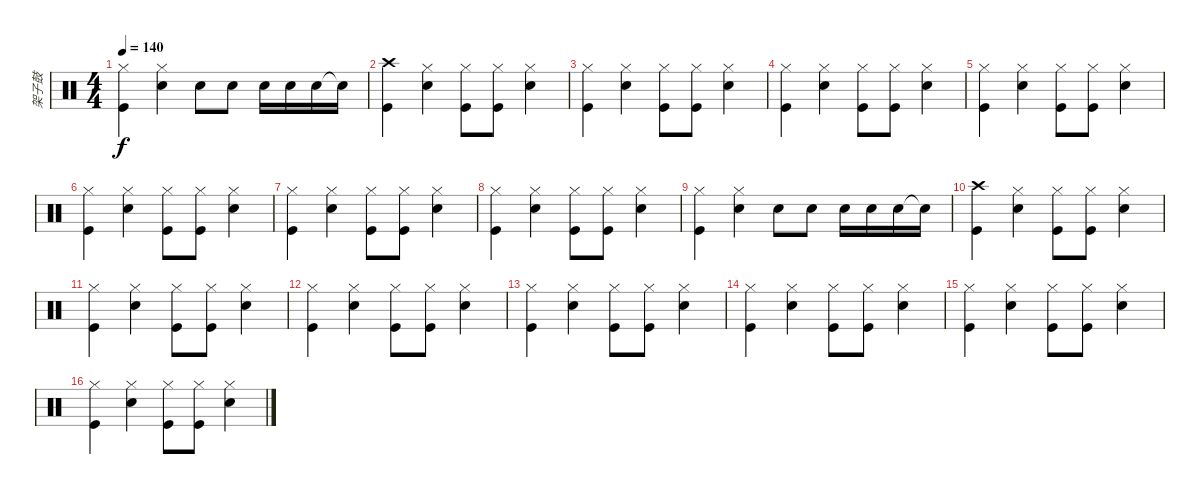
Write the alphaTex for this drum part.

\track ("架子鼓" "架子鼓") {instrument percussion}
\staff {score}
\articulation defaults
\ts (4 4)
\tempo 140
\clef neutral
\ks c
("Hi-Hat (closed)" "Kick (hit)").4{dy f} ("Hi-Hat (closed)" "Electric Snare (hit)").4 "Electric Snare (hit)".8 "Electric Snare (hit)".8 "Electric Snare (hit)".16 "Electric Snare (hit)".16 "Electric Snare (hit)".16 "Snare (hit)"{t}.16 |
("Crash high (hit)" "Kick (hit)").4 ("Hi-Hat (closed)" "Electric Snare (hit)").4 ("Hi-Hat (closed)" "Kick (hit)").8 ("Hi-Hat (closed)" "Kick (hit)").8 ("Hi-Hat (closed)" "Electric Snare (hit)").4 |
("Hi-Hat (closed)" "Kick (hit)").4 ("Hi-Hat (closed)" "Electric Snare (hit)").4 ("Hi-Hat (closed)" "Kick (hit)").8 ("Hi-Hat (closed)" "Kick (hit)").8 ("Hi-Hat (closed)" "Electric Snare (hit)").4 |
("Hi-Hat (closed)" "Kick (hit)").4 ("Hi-Hat (closed)" "Electric Snare (hit)").4 ("Hi-Hat (closed)" "Kick (hit)").8 ("Hi-Hat (closed)" "Kick (hit)").8 ("Hi-Hat (closed)" "Electric Snare (hit)").4 |
("Hi-Hat (closed)" "Kick (hit)").4 ("Hi-Hat (closed)" "Electric Snare (hit)").4 ("Hi-Hat (closed)" "Kick (hit)").8 ("Hi-Hat (closed)" "Kick (hit)").8 ("Hi-Hat (closed)" "Electric Snare (hit)").4 |
("Hi-Hat (closed)" "Kick (hit)").4 ("Hi-Hat (closed)" "Electric Snare (hit)").4 ("Hi-Hat (closed)" "Kick (hit)").8 ("Hi-Hat (closed)" "Kick (hit)").8 ("Hi-Hat (closed)" "Electric Snare (hit)").4 |
("Hi-Hat (closed)" "Kick (hit)").4 ("Hi-Hat (closed)" "Electric Snare (hit)").4 ("Hi-Hat (closed)" "Kick (hit)").8 ("Hi-Hat (closed)" "Kick (hit)").8 ("Hi-Hat (closed)" "Electric Snare (hit)").4 |
("Hi-Hat (closed)" "Kick (hit)").4 ("Hi-Hat (closed)" "Electric Snare (hit)").4 ("Hi-Hat (closed)" "Kick (hit)").8 ("Hi-Hat (closed)" "Kick (hit)").8 ("Hi-Hat (closed)" "Electric Snare (hit)").4 |
("Hi-Hat (closed)" "Kick (hit)").4 ("Hi-Hat (closed)" "Electric Snare (hit)").4 "Electric Snare (hit)".8 "Electric Snare (hit)".8 "Electric Snare (hit)".16 "Electric Snare (hit)".16 "Electric Snare (hit)".16 "Snare (hit)"{t}.16 |
("Crash high (hit)" "Kick (hit)").4 ("Hi-Hat (closed)" "Electric Snare (hit)").4 ("Hi-Hat (closed)" "Kick (hit)").8 ("Hi-Hat (closed)" "Kick (hit)").8 ("Hi-Hat (closed)" "Electric Snare (hit)").4 |
("Hi-Hat (closed)" "Kick (hit)").4 ("Hi-Hat (closed)" "Electric Snare (hit)").4 ("Hi-Hat (closed)" "Kick (hit)").8 ("Hi-Hat (closed)" "Kick (hit)").8 ("Hi-Hat (closed)" "Electric Snare (hit)").4 |
("Hi-Hat (closed)" "Kick (hit)").4 ("Hi-Hat (closed)" "Electric Snare (hit)").4 ("Hi-Hat (closed)" "Kick (hit)").8 ("Hi-Hat (closed)" "Kick (hit)").8 ("Hi-Hat (closed)" "Electric Snare (hit)").4 |
("Hi-Hat (closed)" "Kick (hit)").4 ("Hi-Hat (closed)" "Electric Snare (hit)").4 ("Hi-Hat (closed)" "Kick (hit)").8 ("Hi-Hat (closed)" "Kick (hit)").8 ("Hi-Hat (closed)" "Electric Snare (hit)").4 |
("Hi-Hat (closed)" "Kick (hit)").4 ("Hi-Hat (closed)" "Electric Snare (hit)").4 ("Hi-Hat (closed)" "Kick (hit)").8 ("Hi-Hat (closed)" "Kick (hit)").8 ("Hi-Hat (closed)" "Electric Snare (hit)").4 |
("Hi-Hat (closed)" "Kick (hit)").4 ("Hi-Hat (closed)" "Electric Snare (hit)").4 ("Hi-Hat (closed)" "Kick (hit)").8 ("Hi-Hat (closed)" "Kick (hit)").8 ("Hi-Hat (closed)" "Electric Snare (hit)").4 |
("Hi-Hat (closed)" "Kick (hit)").4 ("Hi-Hat (closed)" "Electric Snare (hit)").4 ("Hi-Hat (closed)" "Kick (hit)").8 ("Hi-Hat (closed)" "Kick (hit)").8 ("Hi-Hat (closed)" "Electric Snare (hit)").4
